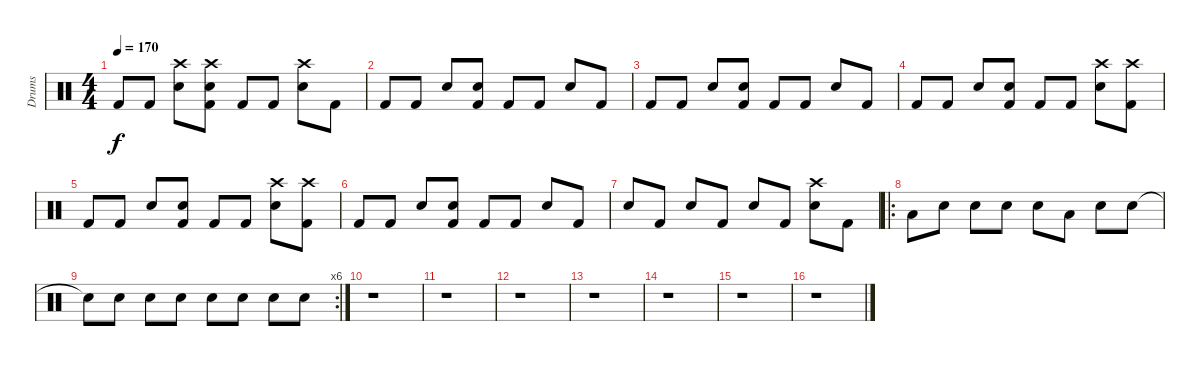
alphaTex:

\track ("Drums" "Drums") {instrument percussion}
\staff {score}
\articulation defaults
\ts (4 4)
\tempo 170
\clef neutral
\ks c "Kick (hit) 2".8{dy f} "Kick (hit) 2".8
("Snare (hit) 2" "Crash high (hit)").8 ("Electric Snare (hit)" "Crash high (hit)" "Kick (hit) 2").8 "Kick (hit) 2".8 "Kick (hit) 2".8 ("Snare (hit) 2" "Crash high (hit)").8 "Kick (hit) 2".8 |
"Kick (hit) 2".8 "Kick (hit) 2".8 "Snare (hit) 2".8 ("Electric Snare (hit)" "Kick (hit) 2").8 "Kick (hit) 2".8 "Kick (hit) 2".8 "Snare (hit) 2".8 "Kick (hit) 2".8 |
"Kick (hit) 2".8 "Kick (hit) 2".8 "Snare (hit) 2".8 ("Electric Snare (hit)" "Kick (hit) 2").8 "Kick (hit) 2".8 "Kick (hit) 2".8 "Snare (hit) 2".8 "Kick (hit) 2".8 |
"Kick (hit) 2".8 "Kick (hit) 2".8 "Snare (hit) 2".8 ("Electric Snare (hit)" "Kick (hit) 2").8 "Kick (hit) 2".8 "Kick (hit) 2".8 ("Snare (hit) 2" "Crash high (hit)").8 ("Crash high (hit)" "Kick (hit) 2").8 |
"Kick (hit) 2".8 "Kick (hit) 2".8 "Snare (hit) 2".8 ("Electric Snare (hit)" "Kick (hit) 2").8 "Kick (hit) 2".8 "Kick (hit) 2".8 ("Snare (hit) 2" "Crash high (hit)").8 ("Crash high (hit)" "Kick (hit) 2").8 |
"Kick (hit) 2".8 "Kick (hit) 2".8 "Snare (hit) 2".8 ("Electric Snare (hit)" "Kick (hit) 2").8 "Kick (hit) 2".8 "Kick (hit) 2".8 "Snare (hit) 2".8 "Kick (hit) 2".8 |
"Snare (hit) 2".8 "Kick (hit) 2".8 "Snare (hit) 2".8 "Kick (hit) 2".8 "Snare (hit) 2".8 "Kick (hit) 2".8 ("Snare (hit) 2" "Crash high (hit)").8 "Kick (hit) 2".8 |
\ro "Low Tom (hit)".8 "Snare (hit)".8 "Electric Snare (hit)".8 "Snare (hit)".8 "Snare (hit)".8 "Low Tom (hit)".8 "Snare (hit)".8 "Electric Snare (hit)".8
|
\rc 6 "Electric Snare (hit)"{t}.8 "Snare (hit)".8 "Electric Snare (hit)".8 "Snare (hit)".8 "Electric Snare (hit)".8 "Snare (hit)".8 "Electric Snare (hit)".8 "Snare (hit)".8
|
r.1 |
r.1 |
r.1 |
r.1 |
r.1 |
r.1 |
r.1
